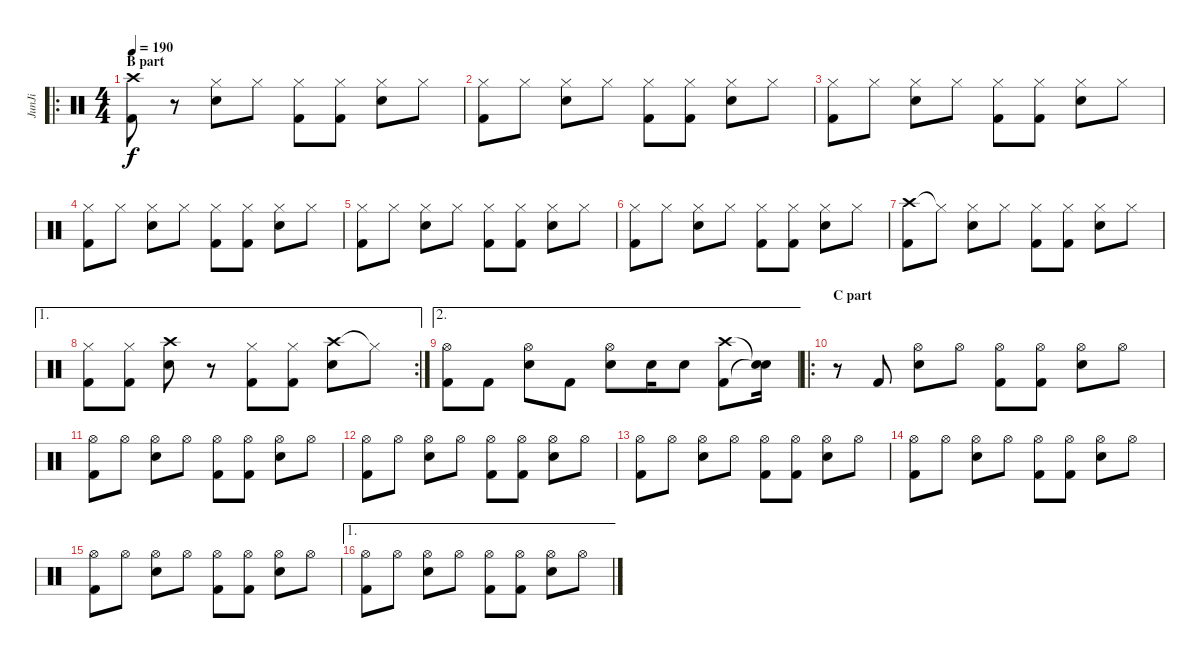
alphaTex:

\track ("JunJi" "JunJi") {instrument percussion}
\staff {score}
\articulation defaults
\ro
\ts (4 4)
\section ("" "B part")
\tempo 190
\clef neutral
\ks c
("Crash high (hit)" "Kick (hit) 2").8{dy f} r.8 ("Hi-Hat (closed)" "Snare (hit) 2").8 "Hi-Hat (closed)".8 ("Hi-Hat (closed)" "Kick (hit) 2").8 ("Hi-Hat (closed)" "Kick (hit) 2").8 ("Hi-Hat (closed)" "Snare (hit) 2").8 "Hi-Hat (closed)".8 |
("Hi-Hat (closed)" "Kick (hit) 2").8 "Hi-Hat (closed)".8 ("Hi-Hat (closed)" "Snare (hit) 2").8 "Hi-Hat (closed)".8 ("Hi-Hat (closed)" "Kick (hit) 2").8 ("Hi-Hat (closed)" "Kick (hit) 2").8 ("Hi-Hat (closed)" "Snare (hit) 2").8 "Hi-Hat (closed)".8 |
("Hi-Hat (closed)" "Kick (hit) 2").8 "Hi-Hat (closed)".8 ("Hi-Hat (closed)" "Snare (hit) 2").8 "Hi-Hat (closed)".8 ("Hi-Hat (closed)" "Kick (hit) 2").8 ("Hi-Hat (closed)" "Kick (hit) 2").8 ("Hi-Hat (closed)" "Snare (hit) 2").8 "Hi-Hat (closed)".8 |
("Hi-Hat (closed)" "Kick (hit) 2").8 "Hi-Hat (closed)".8 ("Hi-Hat (closed)" "Snare (hit) 2").8 "Hi-Hat (closed)".8 ("Hi-Hat (closed)" "Kick (hit) 2").8 ("Hi-Hat (closed)" "Kick (hit) 2").8 ("Hi-Hat (closed)" "Snare (hit) 2").8 "Hi-Hat (closed)".8 |
("Hi-Hat (closed)" "Kick (hit) 2").8 "Hi-Hat (closed)".8 ("Hi-Hat (closed)" "Snare (hit) 2").8 "Hi-Hat (closed)".8 ("Hi-Hat (closed)" "Kick (hit) 2").8 ("Hi-Hat (closed)" "Kick (hit) 2").8 ("Hi-Hat (closed)" "Snare (hit) 2").8 "Hi-Hat (closed)".8 |
("Hi-Hat (closed)" "Kick (hit) 2").8 "Hi-Hat (closed)".8 ("Hi-Hat (closed)" "Snare (hit) 2").8 "Hi-Hat (closed)".8 ("Hi-Hat (closed)" "Kick (hit) 2").8 ("Hi-Hat (closed)" "Kick (hit) 2").8 ("Hi-Hat (closed)" "Snare (hit) 2").8 "Hi-Hat (closed)".8 |
("Crash high (hit)" "Kick (hit) 2").8 "Hi-Hat (closed)"{t}.8 ("Hi-Hat (closed)" "Snare (hit) 2").8 "Hi-Hat (closed)".8 ("Hi-Hat (closed)" "Kick (hit) 2").8 ("Hi-Hat (closed)" "Kick (hit) 2").8 ("Hi-Hat (closed)" "Snare (hit) 2").8 "Hi-Hat (closed)".8 |
\ae 1
\rc 2
("Hi-Hat (closed)" "Kick (hit) 2").8 ("Hi-Hat (closed)" "Kick (hit) 2").8 ("Crash high (hit)" "Snare (hit) 2").8 r.8 ("Hi-Hat (closed)" "Kick (hit) 2").8 ("Hi-Hat (closed)" "Kick (hit) 2").8 ("Crash high (hit)" "Snare (hit) 2").8 "Hi-Hat (closed)"{t}.8 |
\ae 2
("Hi-Hat (open)" "Kick (hit) 2").8 "Kick (hit) 2".8 ("Hi-Hat (open)" "Snare (hit) 2").8 "Kick (hit) 2".8 ("Hi-Hat (open)" "Snare (hit) 2").8 "Snare (hit) 2".16 "Snare (hit) 2".8 ("Crash high (hit)" "Kick (hit) 2").8 ("Snare (hit)"{t} "Snare (hit)"{t}).16 |
\ro
\section ("" "C part")
r.8 "Kick (hit) 2".8 ("Hi-Hat (open)" "Snare (hit) 2").8 "Hi-Hat (open)".8 ("Hi-Hat (open)" "Kick (hit) 2").8 ("Hi-Hat (open)" "Kick (hit) 2").8 ("Hi-Hat (open)" "Snare (hit) 2").8 "Hi-Hat (open)".8 |
("Hi-Hat (open)" "Kick (hit) 2").8 "Hi-Hat (open)".8 ("Hi-Hat (open)" "Snare (hit) 2").8 "Hi-Hat (open)".8 ("Hi-Hat (open)" "Kick (hit) 2").8 ("Hi-Hat (open)" "Kick (hit) 2").8 ("Hi-Hat (open)" "Snare (hit) 2").8 "Hi-Hat (open)".8 |
("Hi-Hat (open)" "Kick (hit) 2").8 "Hi-Hat (open)".8 ("Hi-Hat (open)" "Snare (hit) 2").8 "Hi-Hat (open)".8 ("Hi-Hat (open)" "Kick (hit) 2").8 ("Hi-Hat (open)" "Kick (hit) 2").8 ("Hi-Hat (open)" "Snare (hit) 2").8 "Hi-Hat (open)".8 |
("Hi-Hat (open)" "Kick (hit) 2").8 "Hi-Hat (open)".8 ("Hi-Hat (open)" "Snare (hit) 2").8 "Hi-Hat (open)".8 ("Hi-Hat (open)" "Kick (hit) 2").8 ("Hi-Hat (open)" "Kick (hit) 2").8 ("Hi-Hat (open)" "Snare (hit) 2").8 "Hi-Hat (open)".8 |
("Hi-Hat (open)" "Kick (hit) 2").8 "Hi-Hat (open)".8 ("Hi-Hat (open)" "Snare (hit) 2").8 "Hi-Hat (open)".8 ("Hi-Hat (open)" "Kick (hit) 2").8 ("Hi-Hat (open)" "Kick (hit) 2").8 ("Hi-Hat (open)" "Snare (hit) 2").8 "Hi-Hat (open)".8 |
("Hi-Hat (open)" "Kick (hit) 2").8 "Hi-Hat (open)".8 ("Hi-Hat (open)" "Snare (hit) 2").8 "Hi-Hat (open)".8 ("Hi-Hat (open)" "Kick (hit) 2").8 ("Hi-Hat (open)" "Kick (hit) 2").8 ("Hi-Hat (open)" "Snare (hit) 2").8 "Hi-Hat (open)".8 |
\ae 1
("Hi-Hat (open)" "Kick (hit) 2").8 "Hi-Hat (open)".8 ("Hi-Hat (open)" "Snare (hit) 2").8 "Hi-Hat (open)".8 ("Hi-Hat (open)" "Kick (hit) 2").8 ("Hi-Hat (open)" "Kick (hit) 2").8 ("Hi-Hat (open)" "Snare (hit) 2").8 "Hi-Hat (open)".8
